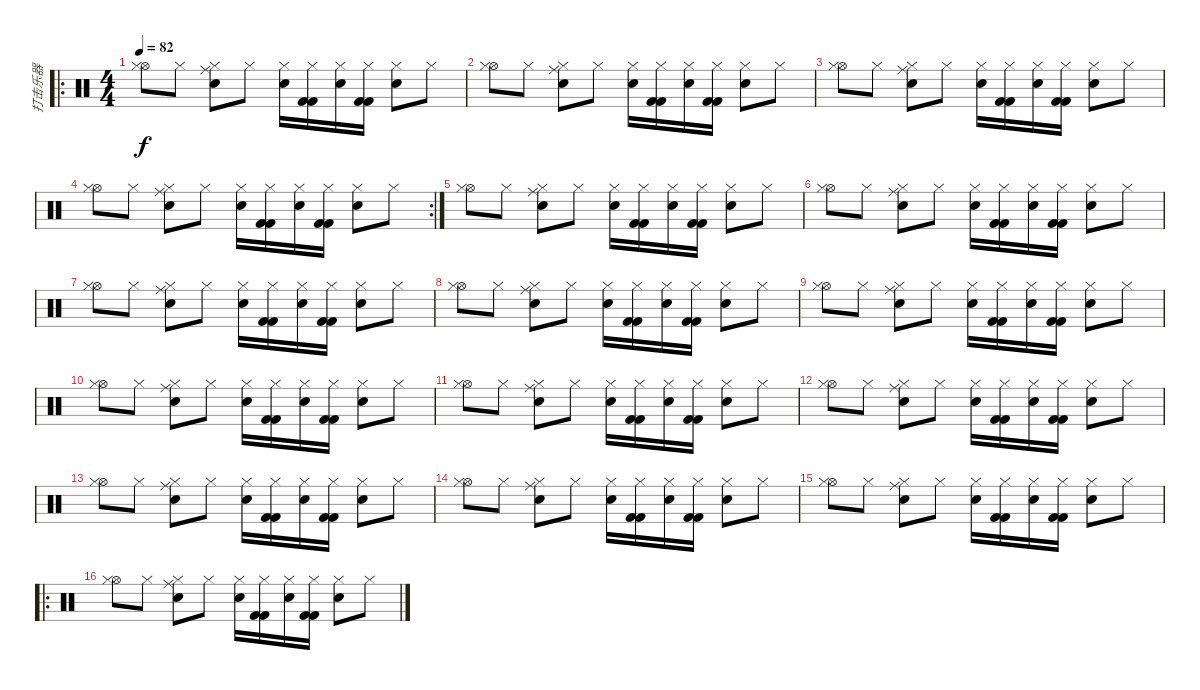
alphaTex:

\track ("打击乐器" "打击乐器") {instrument percussion}
\staff {score}
\articulation defaults
\ro
\ts (4 4)
\tempo 82
\clef neutral
\ks c
("Hi-Hat (open)" "Hi-Hat (closed)").8{dy f} "Hi-Hat (closed)".8 ("Ride (middle)" "Snare (hit) 2" "Hi-Hat (closed)").8 "Hi-Hat (closed)".8 ("Snare (hit) 2" "Hi-Hat (closed)").16 ("Kick (hit) 2" "Kick (hit) 2" "Hi-Hat (closed)").16 ("Snare (hit) 2" "Hi-Hat (closed)").16 ("Kick (hit) 2" "Kick (hit) 2" "Hi-Hat (closed)").16 ("Snare (hit) 2" "Hi-Hat (closed)").8 "Hi-Hat (closed)".8 |
("Hi-Hat (open)" "Hi-Hat (closed)").8 "Hi-Hat (closed)".8 ("Ride (middle)" "Snare (hit) 2" "Hi-Hat (closed)").8 "Hi-Hat (closed)".8 ("Snare (hit) 2" "Hi-Hat (closed)").16 ("Kick (hit) 2" "Kick (hit) 2" "Hi-Hat (closed)").16 ("Snare (hit) 2" "Hi-Hat (closed)").16 ("Kick (hit) 2" "Kick (hit) 2" "Hi-Hat (closed)").16 ("Snare (hit) 2" "Hi-Hat (closed)").8 "Hi-Hat (closed)".8 |
("Hi-Hat (open)" "Hi-Hat (closed)").8 "Hi-Hat (closed)".8 ("Ride (middle)" "Snare (hit) 2" "Hi-Hat (closed)").8 "Hi-Hat (closed)".8 ("Snare (hit) 2" "Hi-Hat (closed)").16 ("Kick (hit) 2" "Kick (hit) 2" "Hi-Hat (closed)").16 ("Snare (hit) 2" "Hi-Hat (closed)").16 ("Kick (hit) 2" "Kick (hit) 2" "Hi-Hat (closed)").16 ("Snare (hit) 2" "Hi-Hat (closed)").8 "Hi-Hat (closed)".8 |
\rc 2
("Hi-Hat (open)" "Hi-Hat (closed)").8 "Hi-Hat (closed)".8 ("Ride (middle)" "Snare (hit) 2" "Hi-Hat (closed)").8 "Hi-Hat (closed)".8 ("Snare (hit) 2" "Hi-Hat (closed)").16 ("Kick (hit) 2" "Kick (hit) 2" "Hi-Hat (closed)").16 ("Snare (hit) 2" "Hi-Hat (closed)").16 ("Kick (hit) 2" "Kick (hit) 2" "Hi-Hat (closed)").16 ("Snare (hit) 2" "Hi-Hat (closed)").8 "Hi-Hat (closed)".8 |
("Hi-Hat (open)" "Hi-Hat (closed)").8 "Hi-Hat (closed)".8 ("Ride (middle)" "Snare (hit) 2" "Hi-Hat (closed)").8 "Hi-Hat (closed)".8 ("Snare (hit) 2" "Hi-Hat (closed)").16 ("Kick (hit) 2" "Kick (hit) 2" "Hi-Hat (closed)").16 ("Snare (hit) 2" "Hi-Hat (closed)").16 ("Kick (hit) 2" "Kick (hit) 2" "Hi-Hat (closed)").16 ("Snare (hit) 2" "Hi-Hat (closed)").8 "Hi-Hat (closed)".8 |
("Hi-Hat (open)" "Hi-Hat (closed)").8 "Hi-Hat (closed)".8 ("Ride (middle)" "Snare (hit) 2" "Hi-Hat (closed)").8 "Hi-Hat (closed)".8 ("Snare (hit) 2" "Hi-Hat (closed)").16 ("Kick (hit) 2" "Kick (hit) 2" "Hi-Hat (closed)").16 ("Snare (hit) 2" "Hi-Hat (closed)").16 ("Kick (hit) 2" "Kick (hit) 2" "Hi-Hat (closed)").16 ("Snare (hit) 2" "Hi-Hat (closed)").8 "Hi-Hat (closed)".8 |
("Hi-Hat (open)" "Hi-Hat (closed)").8 "Hi-Hat (closed)".8 ("Ride (middle)" "Snare (hit) 2" "Hi-Hat (closed)").8 "Hi-Hat (closed)".8 ("Snare (hit) 2" "Hi-Hat (closed)").16 ("Kick (hit) 2" "Kick (hit) 2" "Hi-Hat (closed)").16 ("Snare (hit) 2" "Hi-Hat (closed)").16 ("Kick (hit) 2" "Kick (hit) 2" "Hi-Hat (closed)").16 ("Snare (hit) 2" "Hi-Hat (closed)").8 "Hi-Hat (closed)".8 |
("Hi-Hat (open)" "Hi-Hat (closed)").8 "Hi-Hat (closed)".8 ("Ride (middle)" "Snare (hit) 2" "Hi-Hat (closed)").8 "Hi-Hat (closed)".8 ("Snare (hit) 2" "Hi-Hat (closed)").16 ("Kick (hit) 2" "Kick (hit) 2" "Hi-Hat (closed)").16 ("Snare (hit) 2" "Hi-Hat (closed)").16 ("Kick (hit) 2" "Kick (hit) 2" "Hi-Hat (closed)").16 ("Snare (hit) 2" "Hi-Hat (closed)").8 "Hi-Hat (closed)".8 |
("Hi-Hat (open)" "Hi-Hat (closed)").8 "Hi-Hat (closed)".8 ("Ride (middle)" "Snare (hit) 2" "Hi-Hat (closed)").8 "Hi-Hat (closed)".8 ("Snare (hit) 2" "Hi-Hat (closed)").16 ("Kick (hit) 2" "Kick (hit) 2" "Hi-Hat (closed)").16 ("Snare (hit) 2" "Hi-Hat (closed)").16 ("Kick (hit) 2" "Kick (hit) 2" "Hi-Hat (closed)").16 ("Snare (hit) 2" "Hi-Hat (closed)").8 "Hi-Hat (closed)".8 |
("Hi-Hat (open)" "Hi-Hat (closed)").8 "Hi-Hat (closed)".8 ("Ride (middle)" "Snare (hit) 2" "Hi-Hat (closed)").8 "Hi-Hat (closed)".8 ("Snare (hit) 2" "Hi-Hat (closed)").16 ("Kick (hit) 2" "Kick (hit) 2" "Hi-Hat (closed)").16 ("Snare (hit) 2" "Hi-Hat (closed)").16 ("Kick (hit) 2" "Kick (hit) 2" "Hi-Hat (closed)").16 ("Snare (hit) 2" "Hi-Hat (closed)").8 "Hi-Hat (closed)".8 |
("Hi-Hat (open)" "Hi-Hat (closed)").8 "Hi-Hat (closed)".8 ("Ride (middle)" "Snare (hit) 2" "Hi-Hat (closed)").8 "Hi-Hat (closed)".8 ("Snare (hit) 2" "Hi-Hat (closed)").16 ("Kick (hit) 2" "Kick (hit) 2" "Hi-Hat (closed)").16 ("Snare (hit) 2" "Hi-Hat (closed)").16 ("Kick (hit) 2" "Kick (hit) 2" "Hi-Hat (closed)").16 ("Snare (hit) 2" "Hi-Hat (closed)").8 "Hi-Hat (closed)".8 |
("Hi-Hat (open)" "Hi-Hat (closed)").8 "Hi-Hat (closed)".8 ("Ride (middle)" "Snare (hit) 2" "Hi-Hat (closed)").8 "Hi-Hat (closed)".8 ("Snare (hit) 2" "Hi-Hat (closed)").16 ("Kick (hit) 2" "Kick (hit) 2" "Hi-Hat (closed)").16 ("Snare (hit) 2" "Hi-Hat (closed)").16 ("Kick (hit) 2" "Kick (hit) 2" "Hi-Hat (closed)").16 ("Snare (hit) 2" "Hi-Hat (closed)").8 "Hi-Hat (closed)".8 |
("Hi-Hat (open)" "Hi-Hat (closed)").8 "Hi-Hat (closed)".8 ("Ride (middle)" "Snare (hit) 2" "Hi-Hat (closed)").8 "Hi-Hat (closed)".8 ("Snare (hit) 2" "Hi-Hat (closed)").16 ("Kick (hit) 2" "Kick (hit) 2" "Hi-Hat (closed)").16 ("Snare (hit) 2" "Hi-Hat (closed)").16 ("Kick (hit) 2" "Kick (hit) 2" "Hi-Hat (closed)").16 ("Snare (hit) 2" "Hi-Hat (closed)").8 "Hi-Hat (closed)".8 |
("Hi-Hat (open)" "Hi-Hat (closed)").8 "Hi-Hat (closed)".8 ("Ride (middle)" "Snare (hit) 2" "Hi-Hat (closed)").8 "Hi-Hat (closed)".8 ("Snare (hit) 2" "Hi-Hat (closed)").16 ("Kick (hit) 2" "Kick (hit) 2" "Hi-Hat (closed)").16 ("Snare (hit) 2" "Hi-Hat (closed)").16 ("Kick (hit) 2" "Kick (hit) 2" "Hi-Hat (closed)").16 ("Snare (hit) 2" "Hi-Hat (closed)").8 "Hi-Hat (closed)".8 |
("Hi-Hat (open)" "Hi-Hat (closed)").8 "Hi-Hat (closed)".8 ("Ride (middle)" "Snare (hit) 2" "Hi-Hat (closed)").8 "Hi-Hat (closed)".8 ("Snare (hit) 2" "Hi-Hat (closed)").16 ("Kick (hit) 2" "Kick (hit) 2" "Hi-Hat (closed)").16 ("Snare (hit) 2" "Hi-Hat (closed)").16 ("Kick (hit) 2" "Kick (hit) 2" "Hi-Hat (closed)").16 ("Snare (hit) 2" "Hi-Hat (closed)").8 "Hi-Hat (closed)".8 |
\ro
("Hi-Hat (open)" "Hi-Hat (closed)").8 "Hi-Hat (closed)".8 ("Ride (middle)" "Snare (hit) 2" "Hi-Hat (closed)").8 "Hi-Hat (closed)".8 ("Snare (hit) 2" "Hi-Hat (closed)").16 ("Kick (hit) 2" "Kick (hit) 2" "Hi-Hat (closed)").16 ("Snare (hit) 2" "Hi-Hat (closed)").16 ("Kick (hit) 2" "Kick (hit) 2" "Hi-Hat (closed)").16 ("Snare (hit) 2" "Hi-Hat (closed)").8 "Hi-Hat (closed)".8
